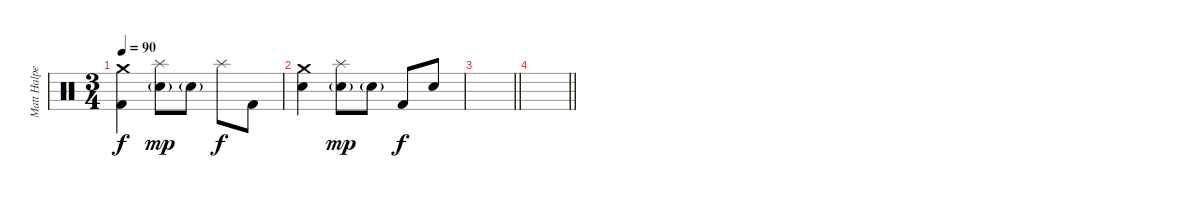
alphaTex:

\track ("Matt Halpern - Drums" "Matt Halpe") {instrument percussion}
\staff {score}
\articulation defaults
\ts (3 4)
\tempo 90
\clef neutral
\ks c
("Crash medium (hit)" "Kick (hit) 2").4{dy f} ("Splash (hit)" "Snare (hit) 2"{g}).8{dy mp} "Snare (hit) 2"{g}.8 "Splash (hit)".8{dy f} "Kick (hit) 2".8 |
("Crash medium (hit)" "Snare (hit) 2").4 ("Splash (hit)" "Snare (hit) 2"{g}).8{dy mp} "Snare (hit) 2"{g}.8 "Kick (hit) 2".8{dy f} "Snare (hit) 2".8 |
\barLineRight lightlight
|
\barLineRight lightlight
